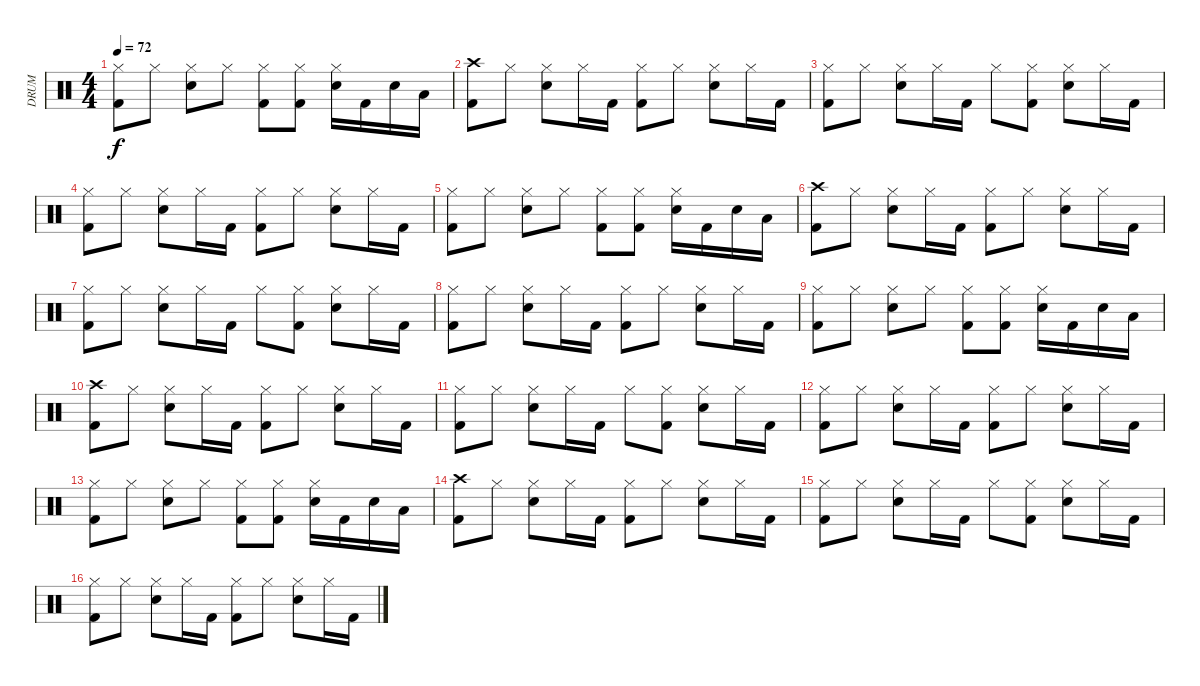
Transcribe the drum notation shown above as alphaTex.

\track ("DRUM" "DRUM") {instrument percussion}
\staff {score}
\articulation defaults
\ts (4 4)
\tempo 72
\clef neutral
\ks c
("Kick (hit) 2" "Hi-Hat (closed)").8{dy f} "Hi-Hat (closed)".8 ("Hi-Hat (closed)" "Electric Snare (hit)").8 "Hi-Hat (closed)".8 ("Kick (hit) 2" "Hi-Hat (closed)").8 ("Kick (hit) 2" "Hi-Hat (closed)").8 ("Hi-Hat (closed)" "Electric Snare (hit)").16 "Kick (hit) 2".16 "Electric Snare (hit)".16 "Low Tom (hit)".16 |
("Kick (hit) 2" "Crash high (hit)").8 "Hi-Hat (closed)".8 ("Hi-Hat (closed)" "Electric Snare (hit)").8 "Hi-Hat (closed)".16 "Kick (hit) 2".16 ("Kick (hit) 2" "Hi-Hat (closed)").8 "Hi-Hat (closed)".8 ("Hi-Hat (closed)" "Electric Snare (hit)").8 "Hi-Hat (closed)".16 "Kick (hit) 2".16 |
("Kick (hit) 2" "Hi-Hat (closed)").8 "Hi-Hat (closed)".8 ("Hi-Hat (closed)" "Electric Snare (hit)").8 "Hi-Hat (closed)".16 "Kick (hit) 2".16 "Hi-Hat (closed)".8 ("Kick (hit) 2" "Hi-Hat (closed)").8 ("Hi-Hat (closed)" "Electric Snare (hit)").8 "Hi-Hat (closed)".16 "Kick (hit) 2".16 |
("Kick (hit) 2" "Hi-Hat (closed)").8 "Hi-Hat (closed)".8 ("Hi-Hat (closed)" "Electric Snare (hit)").8 "Hi-Hat (closed)".16 "Kick (hit) 2".16 ("Kick (hit) 2" "Hi-Hat (closed)").8 "Hi-Hat (closed)".8 ("Hi-Hat (closed)" "Electric Snare (hit)").8 "Hi-Hat (closed)".16 "Kick (hit) 2".16 |
("Kick (hit) 2" "Hi-Hat (closed)").8 "Hi-Hat (closed)".8 ("Hi-Hat (closed)" "Electric Snare (hit)").8 "Hi-Hat (closed)".8 ("Kick (hit) 2" "Hi-Hat (closed)").8 ("Kick (hit) 2" "Hi-Hat (closed)").8 ("Hi-Hat (closed)" "Electric Snare (hit)").16 "Kick (hit) 2".16 "Electric Snare (hit)".16 "Low Tom (hit)".16 |
("Kick (hit) 2" "Crash high (hit)").8 "Hi-Hat (closed)".8 ("Hi-Hat (closed)" "Electric Snare (hit)").8 "Hi-Hat (closed)".16 "Kick (hit) 2".16 ("Kick (hit) 2" "Hi-Hat (closed)").8 "Hi-Hat (closed)".8 ("Hi-Hat (closed)" "Electric Snare (hit)").8 "Hi-Hat (closed)".16 "Kick (hit) 2".16 |
("Kick (hit) 2" "Hi-Hat (closed)").8 "Hi-Hat (closed)".8 ("Hi-Hat (closed)" "Electric Snare (hit)").8 "Hi-Hat (closed)".16 "Kick (hit) 2".16 "Hi-Hat (closed)".8 ("Kick (hit) 2" "Hi-Hat (closed)").8 ("Hi-Hat (closed)" "Electric Snare (hit)").8 "Hi-Hat (closed)".16 "Kick (hit) 2".16 |
("Kick (hit) 2" "Hi-Hat (closed)").8 "Hi-Hat (closed)".8 ("Hi-Hat (closed)" "Electric Snare (hit)").8 "Hi-Hat (closed)".16 "Kick (hit) 2".16 ("Kick (hit) 2" "Hi-Hat (closed)").8 "Hi-Hat (closed)".8 ("Hi-Hat (closed)" "Electric Snare (hit)").8 "Hi-Hat (closed)".16 "Kick (hit) 2".16 |
("Kick (hit) 2" "Hi-Hat (closed)").8 "Hi-Hat (closed)".8 ("Hi-Hat (closed)" "Electric Snare (hit)").8 "Hi-Hat (closed)".8 ("Kick (hit) 2" "Hi-Hat (closed)").8 ("Kick (hit) 2" "Hi-Hat (closed)").8 ("Hi-Hat (closed)" "Electric Snare (hit)").16 "Kick (hit) 2".16 "Electric Snare (hit)".16 "Low Tom (hit)".16 |
("Kick (hit) 2" "Crash high (hit)").8 "Hi-Hat (closed)".8 ("Hi-Hat (closed)" "Electric Snare (hit)").8 "Hi-Hat (closed)".16 "Kick (hit) 2".16 ("Kick (hit) 2" "Hi-Hat (closed)").8 "Hi-Hat (closed)".8 ("Hi-Hat (closed)" "Electric Snare (hit)").8 "Hi-Hat (closed)".16 "Kick (hit) 2".16 |
("Kick (hit) 2" "Hi-Hat (closed)").8 "Hi-Hat (closed)".8 ("Hi-Hat (closed)" "Electric Snare (hit)").8 "Hi-Hat (closed)".16 "Kick (hit) 2".16 "Hi-Hat (closed)".8 ("Kick (hit) 2" "Hi-Hat (closed)").8 ("Hi-Hat (closed)" "Electric Snare (hit)").8 "Hi-Hat (closed)".16 "Kick (hit) 2".16 |
("Kick (hit) 2" "Hi-Hat (closed)").8 "Hi-Hat (closed)".8 ("Hi-Hat (closed)" "Electric Snare (hit)").8 "Hi-Hat (closed)".16 "Kick (hit) 2".16 ("Kick (hit) 2" "Hi-Hat (closed)").8 "Hi-Hat (closed)".8 ("Hi-Hat (closed)" "Electric Snare (hit)").8 "Hi-Hat (closed)".16 "Kick (hit) 2".16 |
("Kick (hit) 2" "Hi-Hat (closed)").8 "Hi-Hat (closed)".8 ("Hi-Hat (closed)" "Electric Snare (hit)").8 "Hi-Hat (closed)".8 ("Kick (hit) 2" "Hi-Hat (closed)").8 ("Kick (hit) 2" "Hi-Hat (closed)").8 ("Hi-Hat (closed)" "Electric Snare (hit)").16 "Kick (hit) 2".16 "Electric Snare (hit)".16 "Low Tom (hit)".16 |
("Kick (hit) 2" "Crash high (hit)").8 "Hi-Hat (closed)".8 ("Hi-Hat (closed)" "Electric Snare (hit)").8 "Hi-Hat (closed)".16 "Kick (hit) 2".16 ("Kick (hit) 2" "Hi-Hat (closed)").8 "Hi-Hat (closed)".8 ("Hi-Hat (closed)" "Electric Snare (hit)").8 "Hi-Hat (closed)".16 "Kick (hit) 2".16 |
("Kick (hit) 2" "Hi-Hat (closed)").8 "Hi-Hat (closed)".8 ("Hi-Hat (closed)" "Electric Snare (hit)").8 "Hi-Hat (closed)".16 "Kick (hit) 2".16 "Hi-Hat (closed)".8 ("Kick (hit) 2" "Hi-Hat (closed)").8 ("Hi-Hat (closed)" "Electric Snare (hit)").8 "Hi-Hat (closed)".16 "Kick (hit) 2".16 |
("Kick (hit) 2" "Hi-Hat (closed)").8 "Hi-Hat (closed)".8 ("Hi-Hat (closed)" "Electric Snare (hit)").8 "Hi-Hat (closed)".16 "Kick (hit) 2".16 ("Kick (hit) 2" "Hi-Hat (closed)").8 "Hi-Hat (closed)".8 ("Hi-Hat (closed)" "Electric Snare (hit)").8 "Hi-Hat (closed)".16 "Kick (hit) 2".16
